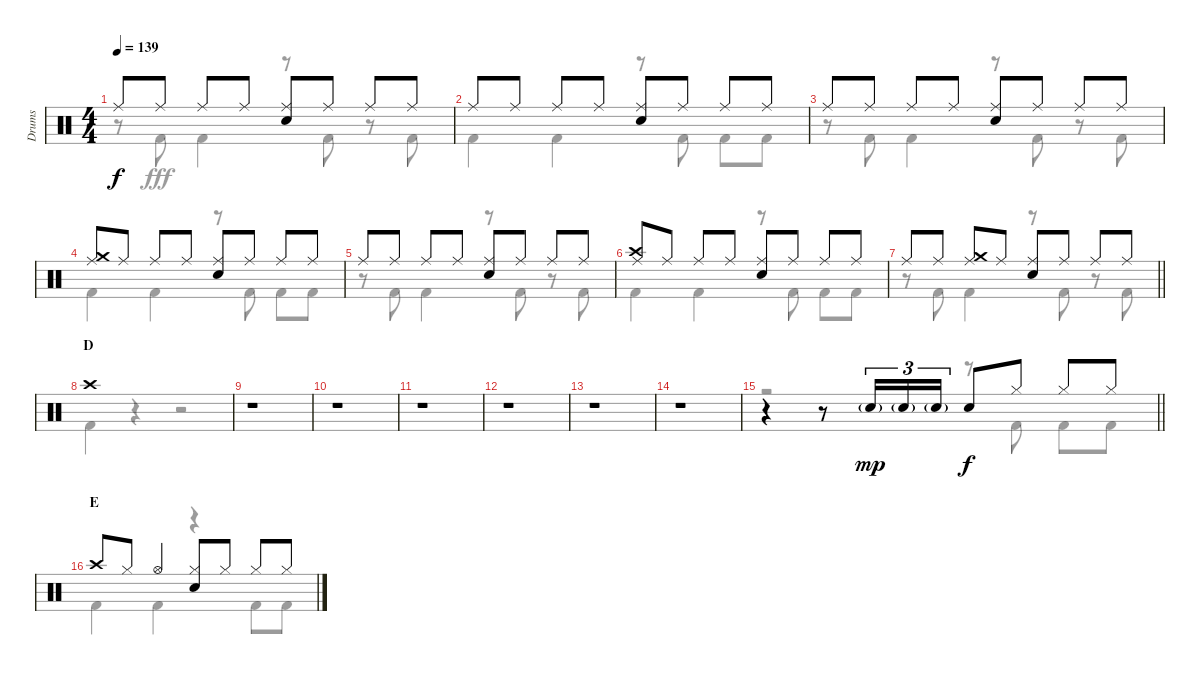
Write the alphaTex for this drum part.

\track ("Drums" "Drums") {instrument percussion}
\staff {score}
\articulation defaults
\voice
\ts (4 4)
\tempo 139
\clef neutral
\ks aminor "Ride (middle)".8{dy f} "Ride (middle)".8 "Ride (middle)".8 "Ride (middle)".8
("Ride (middle)" "Snare (hit) 2").8 "Ride (middle)".8 "Ride (middle)".8 "Ride (middle)".8 |
"Ride (middle)".8 "Ride (middle)".8 "Ride (middle)".8 "Ride (middle)".8 ("Ride (middle)" "Snare (hit) 2").8 "Ride (middle)".8 "Ride (middle)".8 "Ride (middle)".8 |
"Ride (middle)".8 "Ride (middle)".8 "Ride (middle)".8 "Ride (middle)".8 ("Ride (middle)" "Snare (hit) 2").8 "Ride (middle)".8 "Ride (middle)".8 "Ride (middle)".8 |
("Crash medium (hit)" "Ride (middle)").8 "Ride (middle)".8 "Ride (middle)".8 "Ride (middle)".8 ("Ride (middle)" "Snare (hit) 2").8 "Ride (middle)".8 "Ride (middle)".8 "Ride (middle)".8 |
"Ride (middle)".8 "Ride (middle)".8 "Ride (middle)".8 "Ride (middle)".8 ("Ride (middle)" "Snare (hit) 2").8 "Ride (middle)".8 "Ride (middle)".8 "Ride (middle)".8 |
("Crash high (hit)" "Ride (middle)").8 "Ride (middle)".8 "Ride (middle)".8 "Ride (middle)".8 ("Ride (middle)" "Snare (hit) 2").8 "Ride (middle)".8 "Ride (middle)".8 "Ride (middle)".8 |
\barLineRight lightlight "Ride (middle)".8 "Ride (middle)".8
("Crash medium (hit)" "Ride (middle)").8 "Ride (middle)".8 ("Ride (middle)" "Snare (hit) 2").8 "Ride (middle)".8 "Ride (middle)".8 "Ride (middle)".8 |
\section ("" "D")
"Crash high (hit)".1 |
r.1 |
r.1 |
r.1 |
r.1 |
r.1 |
r.1 |
\barLineRight lightlight
r.4 r.8 "Snare (hit) 2"{g}.16{tu (3 2) dy mp} "Snare (hit) 2"{g}.16{tu (3 2)} "Snare (hit) 2"{g}.16{tu (3 2)} "Snare (hit) 2".8{dy f} "Hi-Hat (closed)".8 "Hi-Hat (closed)".8 "Hi-Hat (closed)".8 |
\section ("" "E")
"Crash high (hit)".8 "Hi-Hat (closed)".8 "Hi-Hat (open)".4 ("Hi-Hat (closed)" "Snare (hit) 2").8 "Hi-Hat (closed)".8 "Hi-Hat (closed)".8 "Hi-Hat (closed)".8
\voice
\clef neutral
\ottava regular
\simile none
\ks aminor
r.8{dy fff} "Kick (hit) 2".8 "Kick (hit) 2".4 r.8 "Kick (hit) 2".8 r.8 "Kick (hit) 2".8 |
"Kick (hit) 2".4 "Kick (hit) 2".4 r.8 "Kick (hit) 2".8 "Kick (hit) 2".8 "Kick (hit) 2".8 |
r.8 "Kick (hit) 2".8 "Kick (hit) 2".4 r.8 "Kick (hit) 2".8 r.8 "Kick (hit) 2".8 |
"Kick (hit) 2".4 "Kick (hit) 2".4 r.8 "Kick (hit) 2".8 "Kick (hit) 2".8 "Kick (hit) 2".8 |
r.8 "Kick (hit) 2".8 "Kick (hit) 2".4 r.8 "Kick (hit) 2".8 r.8 "Kick (hit) 2".8 |
"Kick (hit) 2".4 "Kick (hit) 2".4 r.8 "Kick (hit) 2".8 "Kick (hit) 2".8 "Kick (hit) 2".8 |
\barLineRight lightlight
r.8 "Kick (hit) 2".8 "Kick (hit) 2".4 r.8 "Kick (hit) 2".8 r.8 "Kick (hit) 2".8 |
"Kick (hit) 2".4 r.4 r.2 |
r.1 |
r.1 |
r.1 |
r.1 |
r.1 |
r.1 |
\barLineRight lightlight
r.2 r.8 "Kick (hit) 2".8 "Kick (hit) 2".8 "Kick (hit) 2".8 |
"Kick (hit) 2".4 "Kick (hit) 2".4 r.4 "Kick (hit) 2".8 "Kick (hit) 2".8
